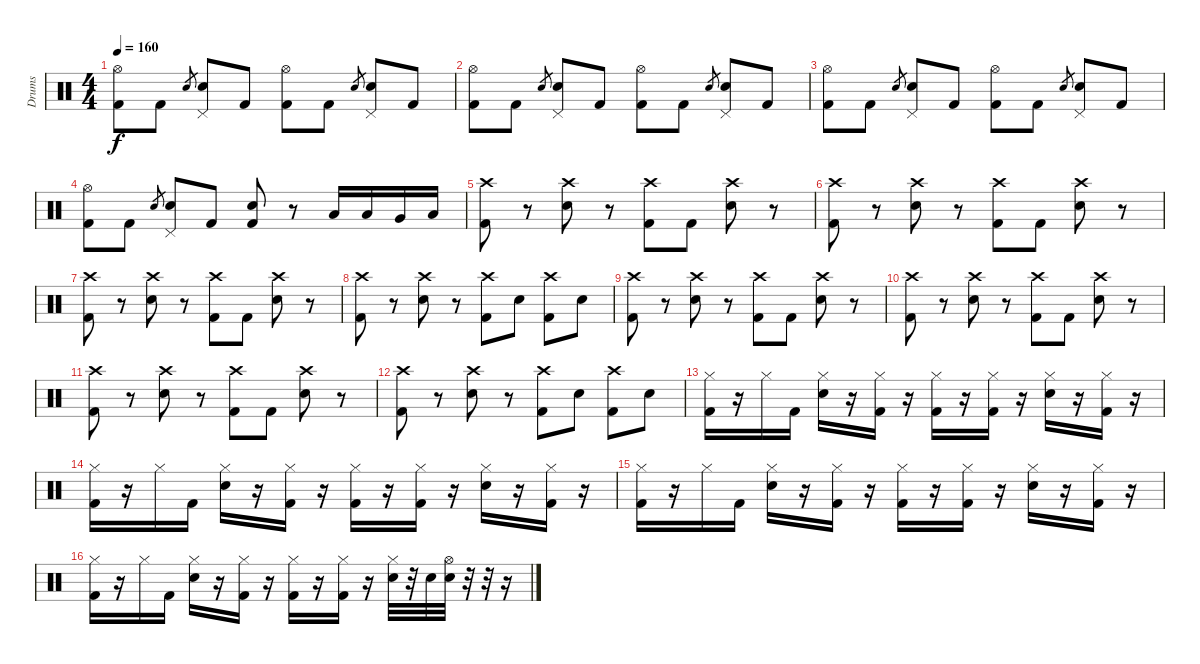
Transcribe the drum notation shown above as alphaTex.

\track ("Drums" "Drums") {instrument percussion}
\staff {score}
\articulation defaults
\ts (4 4)
\tempo 160
\clef neutral
\ks c
("Hi-Hat (open)" "Kick (hit) 2").8{dy f} "Kick (hit) 2".8 "Snare (hit) 2".8{gr} ("Pedal Hi-Hat (hit)" "Snare (hit) 2").8 "Kick (hit) 2".8 ("Hi-Hat (open)" "Kick (hit) 2").8 "Kick (hit) 2".8 "Snare (hit) 2".8{gr} ("Pedal Hi-Hat (hit)" "Snare (hit) 2").8 "Kick (hit) 2".8 |
("Hi-Hat (open)" "Kick (hit) 2").8 "Kick (hit) 2".8 "Snare (hit) 2".8{gr} ("Pedal Hi-Hat (hit)" "Snare (hit) 2").8 "Kick (hit) 2".8 ("Hi-Hat (open)" "Kick (hit) 2").8 "Kick (hit) 2".8 "Snare (hit) 2".8{gr} ("Pedal Hi-Hat (hit)" "Snare (hit) 2").8 "Kick (hit) 2".8 |
("Hi-Hat (open)" "Kick (hit) 2").8 "Kick (hit) 2".8 "Snare (hit) 2".8{gr} ("Pedal Hi-Hat (hit)" "Snare (hit) 2").8 "Kick (hit) 2".8 ("Hi-Hat (open)" "Kick (hit) 2").8 "Kick (hit) 2".8 "Snare (hit) 2".8{gr} ("Pedal Hi-Hat (hit)" "Snare (hit) 2").8 "Kick (hit) 2".8 |
("Hi-Hat (open)" "Kick (hit) 2").8 "Kick (hit) 2".8 "Snare (hit) 2".8{gr} ("Pedal Hi-Hat (hit)" "Snare (hit) 2").8 "Kick (hit) 2".8 ("Snare (hit) 2" "Kick (hit) 2").8 r.8 "Low Tom (hit)".16 "Low Tom (hit)".16 "Very Low Tom (hit)".16 "Low Floor Tom (hit)".16 |
("Crash high (hit)" "Kick (hit) 2").8 r.8 ("Crash high (hit)" "Snare (hit) 2").8 r.8 ("Crash high (hit)" "Kick (hit) 2").8 "Kick (hit) 2".8 ("Crash high (hit)" "Snare (hit) 2").8 r.8 |
("Crash high (hit)" "Kick (hit) 2").8 r.8 ("Crash high (hit)" "Snare (hit) 2").8 r.8 ("Crash high (hit)" "Kick (hit) 2").8 "Kick (hit) 2".8 ("Crash high (hit)" "Snare (hit) 2").8 r.8 |
("Crash high (hit)" "Kick (hit) 2").8 r.8 ("Crash high (hit)" "Snare (hit) 2").8 r.8 ("Crash high (hit)" "Kick (hit) 2").8 "Kick (hit) 2".8 ("Crash high (hit)" "Snare (hit) 2").8 r.8 |
("Crash high (hit)" "Kick (hit) 2").8 r.8 ("Crash high (hit)" "Snare (hit) 2").8 r.8 ("Crash high (hit)" "Kick (hit) 2").8 "Snare (hit) 2".8 ("Crash high (hit)" "Kick (hit) 2").8 "Snare (hit) 2".8 |
("Crash high (hit)" "Kick (hit) 2").8 r.8 ("Crash high (hit)" "Snare (hit) 2").8 r.8 ("Crash high (hit)" "Kick (hit) 2").8 "Kick (hit) 2".8 ("Crash high (hit)" "Snare (hit) 2").8 r.8 |
("Crash high (hit)" "Kick (hit) 2").8 r.8 ("Crash high (hit)" "Snare (hit) 2").8 r.8 ("Crash high (hit)" "Kick (hit) 2").8 "Kick (hit) 2".8 ("Crash high (hit)" "Snare (hit) 2").8 r.8 |
("Crash high (hit)" "Kick (hit) 2").8 r.8 ("Crash high (hit)" "Snare (hit) 2").8 r.8 ("Crash high (hit)" "Kick (hit) 2").8 "Kick (hit) 2".8 ("Crash high (hit)" "Snare (hit) 2").8 r.8 |
("Crash high (hit)" "Kick (hit) 2").8 r.8 ("Crash high (hit)" "Snare (hit) 2").8 r.8 ("Crash high (hit)" "Kick (hit) 2").8 "Snare (hit) 2".8 ("Crash high (hit)" "Kick (hit) 2").8 "Snare (hit) 2".8 |
("Hi-Hat (closed)" "Kick (hit) 2").16 r.16 "Hi-Hat (closed)".16 "Kick (hit) 2".16 ("Hi-Hat (closed)" "Snare (hit) 2").16 r.16 ("Hi-Hat (closed)" "Kick (hit) 2").16 r.16 ("Hi-Hat (closed)" "Kick (hit) 2").16 r.16 ("Hi-Hat (closed)" "Kick (hit) 2").16 r.16 ("Hi-Hat (closed)" "Snare (hit) 2").16 r.16 ("Hi-Hat (closed)" "Kick (hit) 2").16 r.16 |
("Hi-Hat (closed)" "Kick (hit) 2").16 r.16 "Hi-Hat (closed)".16 "Kick (hit) 2".16 ("Hi-Hat (closed)" "Snare (hit) 2").16 r.16 ("Hi-Hat (closed)" "Kick (hit) 2").16 r.16 ("Hi-Hat (closed)" "Kick (hit) 2").16 r.16 ("Hi-Hat (closed)" "Kick (hit) 2").16 r.16 ("Hi-Hat (closed)" "Snare (hit) 2").16 r.16 ("Hi-Hat (closed)" "Kick (hit) 2").16 r.16 |
("Hi-Hat (closed)" "Kick (hit) 2").16 r.16 "Hi-Hat (closed)".16 "Kick (hit) 2".16 ("Hi-Hat (closed)" "Snare (hit) 2").16 r.16 ("Hi-Hat (closed)" "Kick (hit) 2").16 r.16 ("Hi-Hat (closed)" "Kick (hit) 2").16 r.16 ("Hi-Hat (closed)" "Kick (hit) 2").16 r.16 ("Hi-Hat (closed)" "Snare (hit) 2").16 r.16 ("Hi-Hat (closed)" "Kick (hit) 2").16 r.16 |
("Hi-Hat (closed)" "Kick (hit) 2").16 r.16 "Hi-Hat (closed)".16 "Kick (hit) 2".16 ("Hi-Hat (closed)" "Snare (hit) 2").16 r.16 ("Hi-Hat (closed)" "Kick (hit) 2").16 r.16 ("Hi-Hat (closed)" "Kick (hit) 2").16 r.16 ("Hi-Hat (closed)" "Kick (hit) 2").16 r.16 ("Hi-Hat (closed)" "Snare (hit) 2").32 r.32 "Snare (hit) 2".32 ("Hi-Hat (open)" "Snare (hit) 2").32 r.32 r.32 r.16
